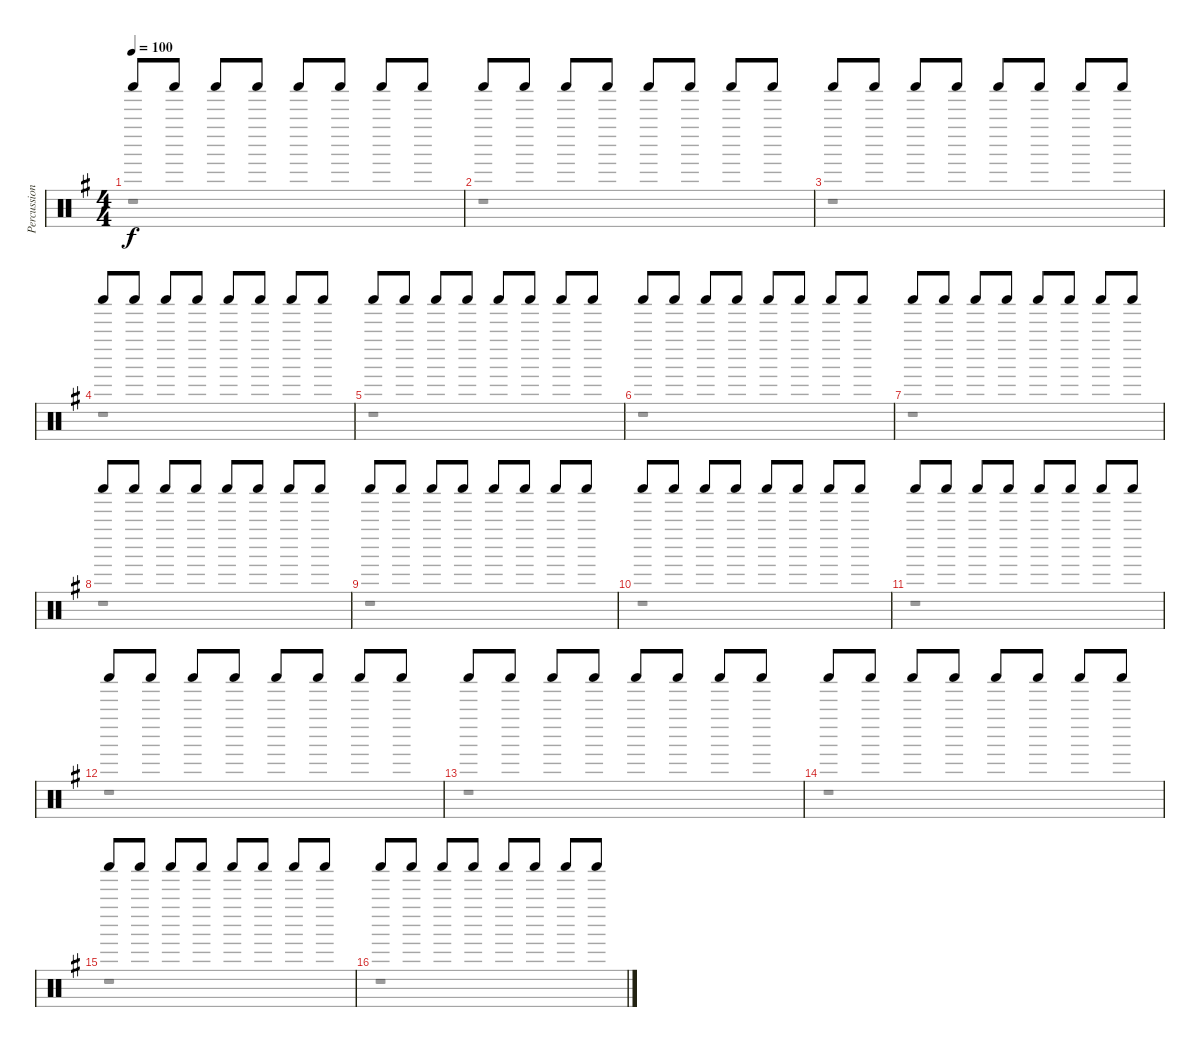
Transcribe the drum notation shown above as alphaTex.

\track ("Percussion" "Percussion") {solo instrument percussion}
\staff {score}
\articulation defaults
\voice
\ts (4 4)
\tempo 100
\clef neutral
\ks g "Shaker (hit)".8{dy f} "Shaker (hit)".8 "Shaker (hit)".8 "Shaker (hit)".8 "Shaker (hit)".8 "Shaker (hit)".8 "Shaker (hit)".8 "Shaker (hit)".8
|
"Shaker (hit)".8 "Shaker (hit)".8 "Shaker (hit)".8 "Shaker (hit)".8 "Shaker (hit)".8 "Shaker (hit)".8 "Shaker (hit)".8 "Shaker (hit)".8 |
"Shaker (hit)".8 "Shaker (hit)".8 "Shaker (hit)".8 "Shaker (hit)".8 "Shaker (hit)".8 "Shaker (hit)".8 "Shaker (hit)".8 "Shaker (hit)".8 |
"Shaker (hit)".8 "Shaker (hit)".8 "Shaker (hit)".8 "Shaker (hit)".8 "Shaker (hit)".8 "Shaker (hit)".8 "Shaker (hit)".8 "Shaker (hit)".8 |
"Shaker (hit)".8 "Shaker (hit)".8 "Shaker (hit)".8 "Shaker (hit)".8 "Shaker (hit)".8 "Shaker (hit)".8 "Shaker (hit)".8 "Shaker (hit)".8 |
"Shaker (hit)".8 "Shaker (hit)".8 "Shaker (hit)".8 "Shaker (hit)".8 "Shaker (hit)".8 "Shaker (hit)".8 "Shaker (hit)".8 "Shaker (hit)".8 |
"Shaker (hit)".8 "Shaker (hit)".8 "Shaker (hit)".8 "Shaker (hit)".8 "Shaker (hit)".8 "Shaker (hit)".8 "Shaker (hit)".8 "Shaker (hit)".8 |
"Shaker (hit)".8 "Shaker (hit)".8 "Shaker (hit)".8 "Shaker (hit)".8 "Shaker (hit)".8 "Shaker (hit)".8 "Shaker (hit)".8 "Shaker (hit)".8 |
"Shaker (hit)".8 "Shaker (hit)".8 "Shaker (hit)".8 "Shaker (hit)".8 "Shaker (hit)".8 "Shaker (hit)".8 "Shaker (hit)".8 "Shaker (hit)".8 |
"Shaker (hit)".8 "Shaker (hit)".8 "Shaker (hit)".8 "Shaker (hit)".8 "Shaker (hit)".8 "Shaker (hit)".8 "Shaker (hit)".8 "Shaker (hit)".8 |
"Shaker (hit)".8 "Shaker (hit)".8 "Shaker (hit)".8 "Shaker (hit)".8 "Shaker (hit)".8 "Shaker (hit)".8 "Shaker (hit)".8 "Shaker (hit)".8 |
"Shaker (hit)".8 "Shaker (hit)".8 "Shaker (hit)".8 "Shaker (hit)".8 "Shaker (hit)".8 "Shaker (hit)".8 "Shaker (hit)".8 "Shaker (hit)".8 |
"Shaker (hit)".8 "Shaker (hit)".8 "Shaker (hit)".8 "Shaker (hit)".8 "Shaker (hit)".8 "Shaker (hit)".8 "Shaker (hit)".8 "Shaker (hit)".8 |
"Shaker (hit)".8 "Shaker (hit)".8 "Shaker (hit)".8 "Shaker (hit)".8 "Shaker (hit)".8 "Shaker (hit)".8 "Shaker (hit)".8 "Shaker (hit)".8 |
"Shaker (hit)".8 "Shaker (hit)".8 "Shaker (hit)".8 "Shaker (hit)".8 "Shaker (hit)".8 "Shaker (hit)".8 "Shaker (hit)".8 "Shaker (hit)".8 |
"Shaker (hit)".8 "Shaker (hit)".8 "Shaker (hit)".8 "Shaker (hit)".8 "Shaker (hit)".8 "Shaker (hit)".8 "Shaker (hit)".8 "Shaker (hit)".8
\voice
\clef neutral
\ottava regular
\simile none
\ks g
r.1{dy f} |
r.1 |
r.1 |
r.1 |
r.1 |
r.1 |
r.1 |
r.1 |
r.1 |
r.1 |
r.1 |
r.1 |
r.1 |
r.1 |
r.1 |
r.1
